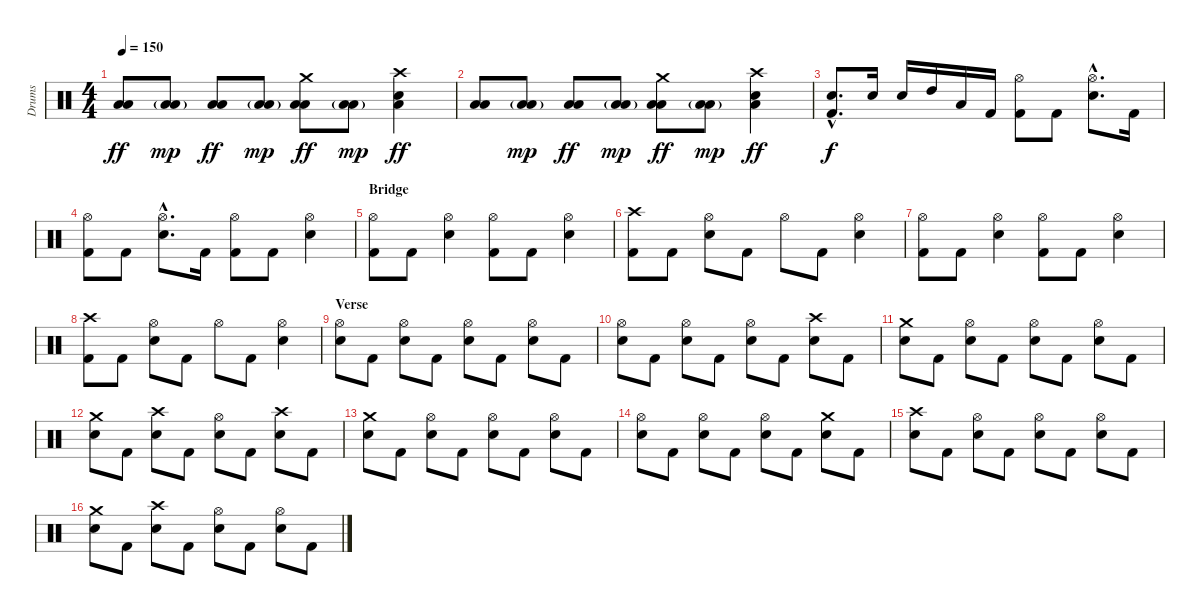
\track ("Drums" "Drums") {instrument percussion}
\staff {score}
\articulation defaults
\ts (4 4)
\section ("" "")
\tempo 150
\clef neutral
\ks c
("Low Tom (hit)" "Low Floor Tom (hit)").8{dy ff} ("Low Tom (hit)"{g} "Low Floor Tom (hit)"{g}).8{dy mp} ("Low Tom (hit)" "Low Floor Tom (hit)").8{dy ff} ("Low Tom (hit)"{g} "Low Floor Tom (hit)"{g}).8{dy mp} ("Crash medium (hit)" "Low Tom (hit)" "Low Floor Tom (hit)").8{dy ff} ("Low Tom (hit)"{g} "Low Floor Tom (hit)"{g}).8{dy mp} ("Crash high (hit)" "Snare (hit) 2" "Low Floor Tom (hit)").4{dy ff} |
("Low Tom (hit)" "Low Floor Tom (hit)").8 ("Low Tom (hit)"{g} "Low Floor Tom (hit)"{g}).8{dy mp} ("Low Tom (hit)" "Low Floor Tom (hit)").8{dy ff} ("Low Tom (hit)"{g} "Low Floor Tom (hit)"{g}).8{dy mp} ("Crash medium (hit)" "Low Tom (hit)" "Low Floor Tom (hit)").8{dy ff} ("Low Tom (hit)"{g} "Low Floor Tom (hit)"{g}).8{dy mp} ("Crash high (hit)" "Snare (hit) 2" "Low Floor Tom (hit)").4{dy ff} |
("Snare (hit) 2"{hac} "Kick (hit) 2"{hac}).8{d dy f} "Snare (hit) 2".16 "Snare (hit) 2".16 "High Tom (hit)".16 "Low Tom (hit)".16 "Kick (hit) 2".16 ("Hi-Hat (open)" "Kick (hit) 2").8 "Kick (hit) 2".8 ("Hi-Hat (open)"{hac} "Snare (hit) 2"{hac}).8{d} "Kick (hit) 2".16 |
("Hi-Hat (open)" "Kick (hit) 2").8 "Kick (hit) 2".8 ("Hi-Hat (open)"{hac} "Snare (hit) 2"{hac}).8{d} "Kick (hit) 2".16 ("Hi-Hat (open)" "Kick (hit) 2").8 "Kick (hit) 2".8 ("Hi-Hat (open)" "Snare (hit) 2").4 |
\section ("" "Bridge")
("Hi-Hat (open)" "Kick (hit) 2").8 "Kick (hit) 2".8 ("Hi-Hat (open)" "Snare (hit) 2").4 ("Hi-Hat (open)" "Kick (hit) 2").8 "Kick (hit) 2".8 ("Hi-Hat (open)" "Snare (hit) 2").4 |
("Crash high (hit)" "Kick (hit) 2").8 "Kick (hit) 2".8 ("Hi-Hat (open)" "Snare (hit) 2").8 "Kick (hit) 2".8 "Hi-Hat (open)".8 "Kick (hit) 2".8 ("Hi-Hat (open)" "Snare (hit) 2").4 |
\section ("" "")
("Hi-Hat (open)" "Kick (hit) 2").8 "Kick (hit) 2".8 ("Hi-Hat (open)" "Snare (hit) 2").4 ("Hi-Hat (open)" "Kick (hit) 2").8 "Kick (hit) 2".8 ("Hi-Hat (open)" "Snare (hit) 2").4 |
("Crash high (hit)" "Kick (hit) 2").8 "Kick (hit) 2".8 ("Hi-Hat (open)" "Snare (hit) 2").8 "Kick (hit) 2".8 "Hi-Hat (open)".8 "Kick (hit) 2".8 ("Hi-Hat (open)" "Snare (hit) 2").4 |
\section ("" "Verse")
("Hi-Hat (open)" "Snare (hit) 2").8 "Kick (hit) 2".8 ("Hi-Hat (open)" "Snare (hit) 2").8 "Kick (hit) 2".8 ("Hi-Hat (open)" "Snare (hit) 2").8 "Kick (hit) 2".8 ("Hi-Hat (open)" "Snare (hit) 2").8 "Kick (hit) 2".8 |
("Hi-Hat (open)" "Snare (hit) 2").8 "Kick (hit) 2".8 ("Hi-Hat (open)" "Snare (hit) 2").8 "Kick (hit) 2".8 ("Hi-Hat (open)" "Snare (hit) 2").8 "Kick (hit) 2".8 ("Crash high (hit)" "Snare (hit) 2").8 "Kick (hit) 2".8 |
("Crash medium (hit)" "Snare (hit) 2").8 "Kick (hit) 2".8 ("Hi-Hat (open)" "Snare (hit) 2").8 "Kick (hit) 2".8 ("Hi-Hat (open)" "Snare (hit) 2").8 "Kick (hit) 2".8 ("Hi-Hat (open)" "Snare (hit) 2").8 "Kick (hit) 2".8 |
("Crash medium (hit)" "Snare (hit) 2").8 "Kick (hit) 2".8 ("Crash high (hit)" "Snare (hit) 2").8 "Kick (hit) 2".8 ("Hi-Hat (open)" "Snare (hit) 2").8 "Kick (hit) 2".8 ("Crash high (hit)" "Snare (hit) 2").8 "Kick (hit) 2".8 |
("Crash medium (hit)" "Snare (hit) 2").8 "Kick (hit) 2".8 ("Hi-Hat (open)" "Snare (hit) 2").8 "Kick (hit) 2".8 ("Hi-Hat (open)" "Snare (hit) 2").8 "Kick (hit) 2".8 ("Hi-Hat (open)" "Snare (hit) 2").8 "Kick (hit) 2".8 |
("Hi-Hat (open)" "Snare (hit) 2").8 "Kick (hit) 2".8 ("Hi-Hat (open)" "Snare (hit) 2").8 "Kick (hit) 2".8 ("Hi-Hat (open)" "Snare (hit) 2").8 "Kick (hit) 2".8 ("Crash medium (hit)" "Snare (hit) 2").8 "Kick (hit) 2".8 |
("Crash high (hit)" "Snare (hit) 2").8 "Kick (hit) 2".8 ("Hi-Hat (open)" "Snare (hit) 2").8 "Kick (hit) 2".8 ("Hi-Hat (open)" "Snare (hit) 2").8 "Kick (hit) 2".8 ("Hi-Hat (open)" "Snare (hit) 2").8 "Kick (hit) 2".8 |
("Crash medium (hit)" "Snare (hit) 2").8 "Kick (hit) 2".8 ("Crash high (hit)" "Snare (hit) 2").8 "Kick (hit) 2".8 ("Hi-Hat (open)" "Snare (hit) 2").8 "Kick (hit) 2".8 ("Hi-Hat (open)" "Snare (hit) 2").8 "Kick (hit) 2".8
